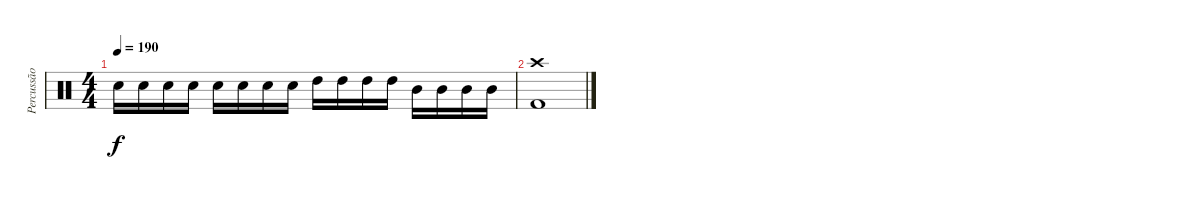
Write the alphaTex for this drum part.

\track ("Percussão" "Percussão") {instrument percussion}
\staff {score}
\articulation defaults
\ts (4 4)
\tempo 190
\clef neutral
\ks c "Electric Snare (hit)".16{dy f} "Electric Snare (hit)".16 "Electric Snare (hit)".16 "Electric Snare (hit)".16 "Electric Snare (hit)".16 "Electric Snare (hit)".16 "Electric Snare (hit)".16 "Electric Snare (hit)".16 "High Tom (hit)".16 "High Tom (hit)".16 "High Tom (hit)".16 "High Tom (hit)".16 "Mid Tom (hit)".16 "Mid Tom (hit)".16 "Mid Tom (hit)".16 "Mid Tom (hit)".16
|
("Crash high (hit)" "Kick (hit) 2").1
